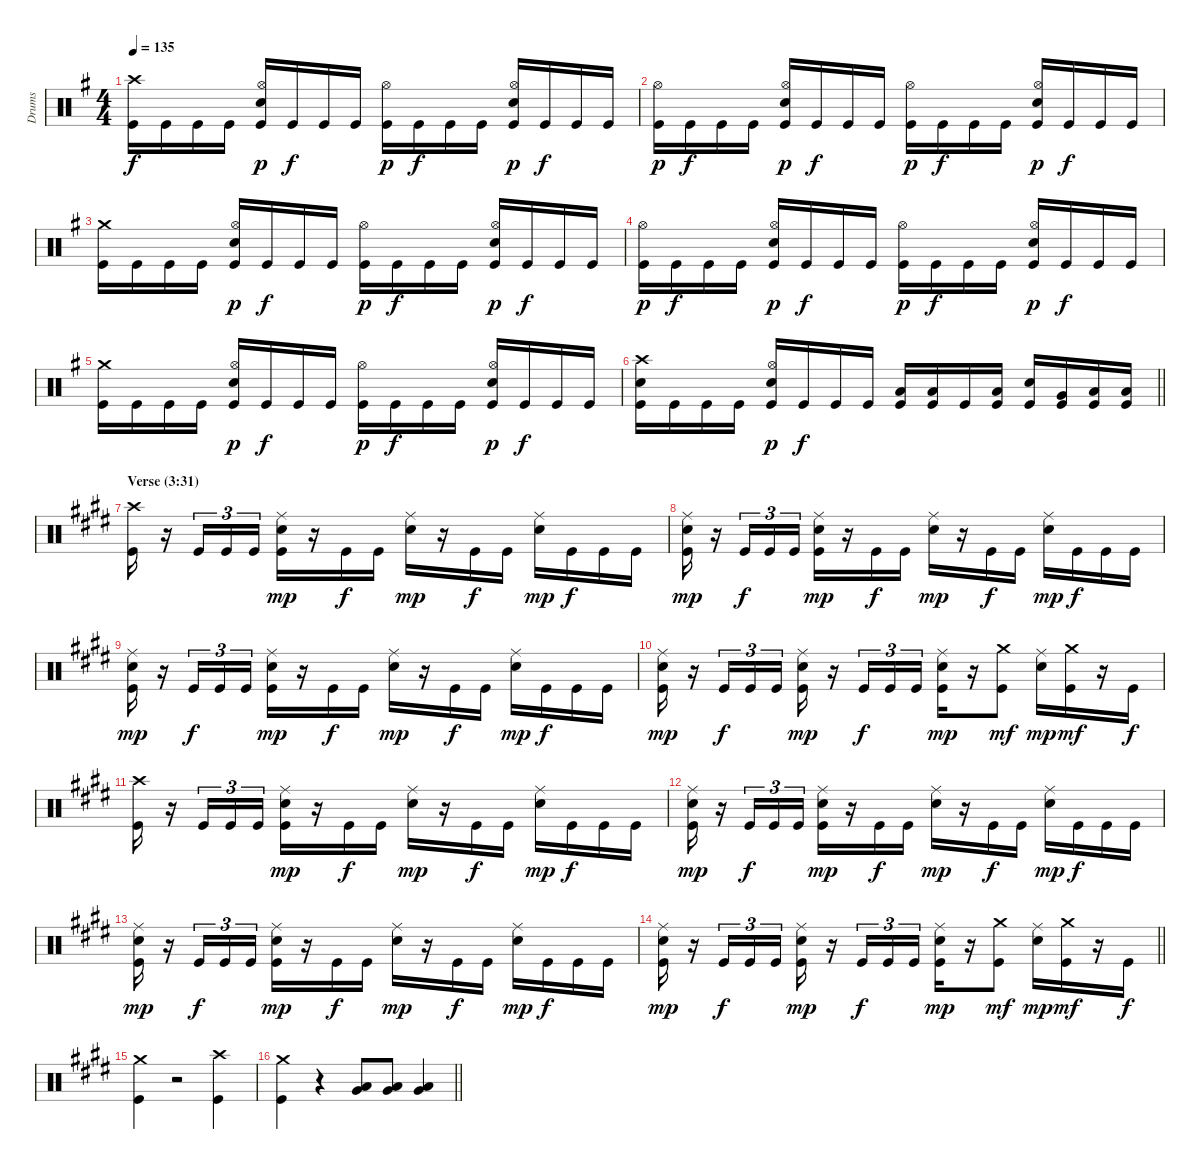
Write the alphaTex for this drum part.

\track ("Drums" "Drums") {instrument percussion}
\staff {score}
\articulation defaults
\ts (4 4)
\tempo 135
\clef neutral
\ks eminor
("Crash high (hit)" "Kick (hit)").16{dy f} "Kick (hit)".16 "Kick (hit)".16 "Kick (hit)".16 ("Hi-Hat (open)" "Snare (hit) 2" "Kick (hit)").16{dy p} "Kick (hit)".16{dy f} "Kick (hit)".16 "Kick (hit)".16 ("Hi-Hat (open)" "Kick (hit)").16{dy p} "Kick (hit)".16{dy f} "Kick (hit)".16 "Kick (hit)".16 ("Hi-Hat (open)" "Snare (hit) 2" "Kick (hit)").16{dy p} "Kick (hit)".16{dy f} "Kick (hit)".16 "Kick (hit)".16 |
("Hi-Hat (open)" "Kick (hit)").16{dy p} "Kick (hit)".16{dy f} "Kick (hit)".16 "Kick (hit)".16 ("Hi-Hat (open)" "Snare (hit) 2" "Kick (hit)").16{dy p} "Kick (hit)".16{dy f} "Kick (hit)".16 "Kick (hit)".16 ("Hi-Hat (open)" "Kick (hit)").16{dy p} "Kick (hit)".16{dy f} "Kick (hit)".16 "Kick (hit)".16 ("Hi-Hat (open)" "Snare (hit) 2" "Kick (hit)").16{dy p} "Kick (hit)".16{dy f} "Kick (hit)".16 "Kick (hit)".16 |
("Crash medium (hit)" "Kick (hit)").16 "Kick (hit)".16 "Kick (hit)".16 "Kick (hit)".16 ("Hi-Hat (open)" "Snare (hit) 2" "Kick (hit)").16{dy p} "Kick (hit)".16{dy f} "Kick (hit)".16 "Kick (hit)".16 ("Hi-Hat (open)" "Kick (hit)").16{dy p} "Kick (hit)".16{dy f} "Kick (hit)".16 "Kick (hit)".16 ("Hi-Hat (open)" "Snare (hit) 2" "Kick (hit)").16{dy p} "Kick (hit)".16{dy f} "Kick (hit)".16 "Kick (hit)".16 |
("Hi-Hat (open)" "Kick (hit)").16{dy p} "Kick (hit)".16{dy f} "Kick (hit)".16 "Kick (hit)".16 ("Hi-Hat (open)" "Snare (hit) 2" "Kick (hit)").16{dy p} "Kick (hit)".16{dy f} "Kick (hit)".16 "Kick (hit)".16 ("Hi-Hat (open)" "Kick (hit)").16{dy p} "Kick (hit)".16{dy f} "Kick (hit)".16 "Kick (hit)".16 ("Hi-Hat (open)" "Snare (hit) 2" "Kick (hit)").16{dy p} "Kick (hit)".16{dy f} "Kick (hit)".16 "Kick (hit)".16 |
("Crash medium (hit)" "Kick (hit)").16 "Kick (hit)".16 "Kick (hit)".16 "Kick (hit)".16 ("Hi-Hat (open)" "Snare (hit) 2" "Kick (hit)").16{dy p} "Kick (hit)".16{dy f} "Kick (hit)".16 "Kick (hit)".16 ("Hi-Hat (open)" "Kick (hit)").16{dy p} "Kick (hit)".16{dy f} "Kick (hit)".16 "Kick (hit)".16 ("Hi-Hat (open)" "Snare (hit) 2" "Kick (hit)").16{dy p} "Kick (hit)".16{dy f} "Kick (hit)".16 "Kick (hit)".16 |
\barLineRight lightlight
("Crash high (hit)" "Snare (hit) 2" "Kick (hit)").16 "Kick (hit)".16 "Kick (hit)".16 "Kick (hit)".16 ("Hi-Hat (open)" "Snare (hit) 2" "Kick (hit)").16{dy p} "Kick (hit)".16{dy f} "Kick (hit)".16 "Kick (hit)".16 ("Low Floor Tom (hit)" "Kick (hit)").16 ("Low Tom (hit)" "Kick (hit)").16 "Kick (hit)".16 ("Low Floor Tom (hit)" "Kick (hit)").16 ("Snare (hit) 2" "Kick (hit)").16 ("Very Low Tom (hit)" "Kick (hit)").16 ("Low Floor Tom (hit)" "Kick (hit)").16 ("Low Floor Tom (hit)" "Kick (hit)").16 |
\section ("" "Verse (3:31)")
\ks c#minor
("Crash high (hit)" "Kick (hit)").16 r.16 "Kick (hit)".16{tu (3 2)} "Kick (hit)".16{tu (3 2)} "Kick (hit)".16{tu (3 2)} ("Ride (middle)" "Snare (hit) 2" "Kick (hit)").16{dy mp} r.16 "Kick (hit)".16{dy f} "Kick (hit)".16 ("Ride (middle)" "Snare (hit) 2").16{dy mp} r.16 "Kick (hit)".16{dy f} "Kick (hit)".16 ("Ride (middle)" "Snare (hit) 2").16{dy mp} "Kick (hit)".16{dy f} "Kick (hit)".16 "Kick (hit)".16 |
("Ride (middle)" "Snare (hit) 2" "Kick (hit)").16{dy mp} r.16 "Kick (hit)".16{tu (3 2) dy f} "Kick (hit)".16{tu (3 2)} "Kick (hit)".16{tu (3 2)} ("Ride (middle)" "Snare (hit) 2" "Kick (hit)").16{dy mp} r.16 "Kick (hit)".16{dy f} "Kick (hit)".16 ("Ride (middle)" "Snare (hit) 2").16{dy mp} r.16 "Kick (hit)".16{dy f} "Kick (hit)".16 ("Ride (middle)" "Snare (hit) 2").16{dy mp} "Kick (hit)".16{dy f} "Kick (hit)".16 "Kick (hit)".16 |
("Ride (middle)" "Snare (hit) 2" "Kick (hit)").16{dy mp} r.16 "Kick (hit)".16{tu (3 2) dy f} "Kick (hit)".16{tu (3 2)} "Kick (hit)".16{tu (3 2)} ("Ride (middle)" "Snare (hit) 2" "Kick (hit)").16{dy mp} r.16 "Kick (hit)".16{dy f} "Kick (hit)".16 ("Ride (middle)" "Snare (hit) 2").16{dy mp} r.16 "Kick (hit)".16{dy f} "Kick (hit)".16 ("Ride (middle)" "Snare (hit) 2").16{dy mp} "Kick (hit)".16{dy f} "Kick (hit)".16 "Kick (hit)".16 |
("Ride (middle)" "Snare (hit) 2" "Kick (hit)").16{dy mp} r.16 "Kick (hit)".16{tu (3 2) dy f} "Kick (hit)".16{tu (3 2)} "Kick (hit)".16{tu (3 2)} ("Ride (middle)" "Snare (hit) 2" "Kick (hit)").16{dy mp} r.16 "Kick (hit)".16{tu (3 2) dy f} "Kick (hit)".16{tu (3 2)} "Kick (hit)".16{tu (3 2)} ("Ride (middle)" "Snare (hit) 2" "Kick (hit)").16{dy mp} r.16 ("Crash medium (hit)" "Kick (hit)").8{dy mf} ("Ride (middle)" "Snare (hit) 2").16{dy mp} ("Crash medium (hit)" "Kick (hit)").16{dy mf} r.16 "Kick (hit)".16{dy f} |
("Crash high (hit)" "Kick (hit)").16 r.16 "Kick (hit)".16{tu (3 2)} "Kick (hit)".16{tu (3 2)} "Kick (hit)".16{tu (3 2)} ("Ride (middle)" "Snare (hit) 2" "Kick (hit)").16{dy mp} r.16 "Kick (hit)".16{dy f} "Kick (hit)".16 ("Ride (middle)" "Snare (hit) 2").16{dy mp} r.16 "Kick (hit)".16{dy f} "Kick (hit)".16 ("Ride (middle)" "Snare (hit) 2").16{dy mp} "Kick (hit)".16{dy f} "Kick (hit)".16 "Kick (hit)".16 |
("Ride (middle)" "Snare (hit) 2" "Kick (hit)").16{dy mp} r.16 "Kick (hit)".16{tu (3 2) dy f} "Kick (hit)".16{tu (3 2)} "Kick (hit)".16{tu (3 2)} ("Ride (middle)" "Snare (hit) 2" "Kick (hit)").16{dy mp} r.16 "Kick (hit)".16{dy f} "Kick (hit)".16 ("Ride (middle)" "Snare (hit) 2").16{dy mp} r.16 "Kick (hit)".16{dy f} "Kick (hit)".16 ("Ride (middle)" "Snare (hit) 2").16{dy mp} "Kick (hit)".16{dy f} "Kick (hit)".16 "Kick (hit)".16 |
("Ride (middle)" "Snare (hit) 2" "Kick (hit)").16{dy mp} r.16 "Kick (hit)".16{tu (3 2) dy f} "Kick (hit)".16{tu (3 2)} "Kick (hit)".16{tu (3 2)} ("Ride (middle)" "Snare (hit) 2" "Kick (hit)").16{dy mp} r.16 "Kick (hit)".16{dy f} "Kick (hit)".16 ("Ride (middle)" "Snare (hit) 2").16{dy mp} r.16 "Kick (hit)".16{dy f} "Kick (hit)".16 ("Ride (middle)" "Snare (hit) 2").16{dy mp} "Kick (hit)".16{dy f} "Kick (hit)".16 "Kick (hit)".16 |
\barLineRight lightlight
("Ride (middle)" "Snare (hit) 2" "Kick (hit)").16{dy mp} r.16 "Kick (hit)".16{tu (3 2) dy f} "Kick (hit)".16{tu (3 2)} "Kick (hit)".16{tu (3 2)} ("Ride (middle)" "Snare (hit) 2" "Kick (hit)").16{dy mp} r.16 "Kick (hit)".16{tu (3 2) dy f} "Kick (hit)".16{tu (3 2)} "Kick (hit)".16{tu (3 2)} ("Ride (middle)" "Snare (hit) 2" "Kick (hit)").16{dy mp} r.16 ("Crash medium (hit)" "Kick (hit)").8{dy mf} ("Ride (middle)" "Snare (hit) 2").16{dy mp} ("Crash medium (hit)" "Kick (hit)").16{dy mf} r.16 "Kick (hit)".16{dy f} |
("Crash medium (hit)" "Kick (hit)").4 r.2 ("Crash high (hit)" "Kick (hit)").4 |
\barLineRight lightlight
("Crash medium (hit)" "Kick (hit)").4 r.4 ("Low Tom (hit)" "Very Low Tom (hit)").8 ("Low Tom (hit)" "Very Low Tom (hit)").8 ("Low Tom (hit)" "Very Low Tom (hit)").4
